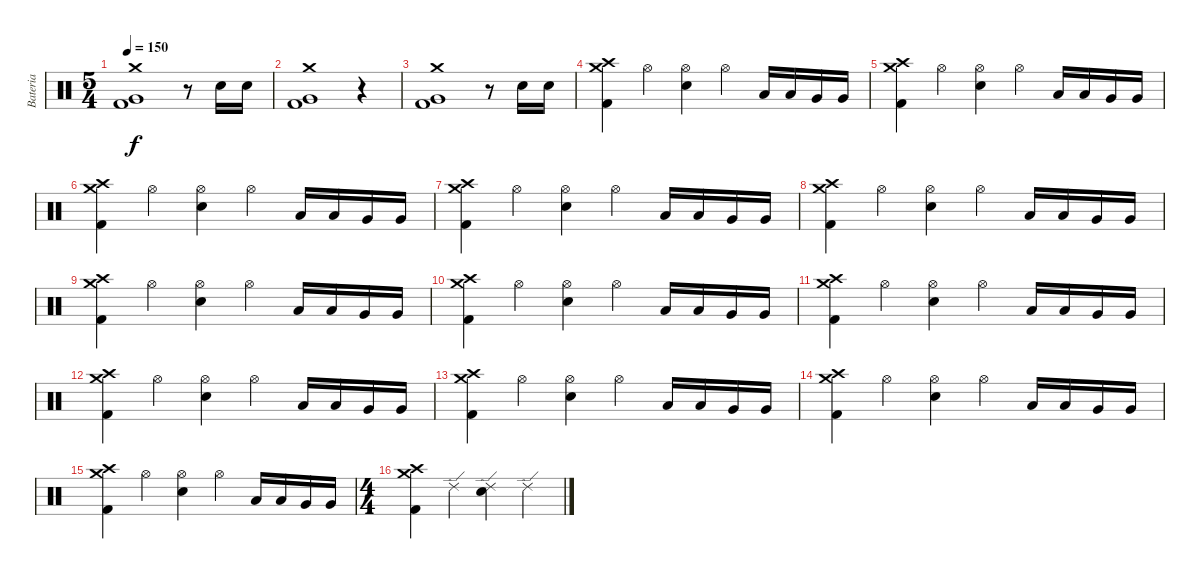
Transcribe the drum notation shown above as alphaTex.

\track ("Bateria" "Bateria") {instrument percussion}
\staff {score}
\articulation defaults
\ts (5 4)
\tempo 150
\clef neutral
\ks c
("Crash medium (hit)" "Very Low Tom (hit)" "Kick (hit) 2").1{dy f} r.8 "Snare (hit) 2".16 "Snare (hit) 2".16 |
("Crash medium (hit)" "Very Low Tom (hit)" "Kick (hit) 2").1 r.4 |
("Crash medium (hit)" "Very Low Tom (hit)" "Kick (hit) 2").1 r.8 "Snare (hit) 2".16 "Snare (hit) 2".16 |
("Crash high (hit)" "Crash medium (hit)" "Kick (hit) 2").4 "Hi-Hat (open)".4 ("Hi-Hat (open)" "Snare (hit) 2").4 "Hi-Hat (open)".4 "Low Tom (hit)".16 "Low Tom (hit)".16 "Very Low Tom (hit)".16 "Very Low Tom (hit)".16 |
("Crash high (hit)" "Crash medium (hit)" "Kick (hit) 2").4 "Hi-Hat (open)".4 ("Hi-Hat (open)" "Snare (hit) 2").4 "Hi-Hat (open)".4 "Low Tom (hit)".16 "Low Tom (hit)".16 "Very Low Tom (hit)".16 "Very Low Tom (hit)".16 |
("Crash high (hit)" "Crash medium (hit)" "Kick (hit) 2").4 "Hi-Hat (open)".4 ("Hi-Hat (open)" "Snare (hit) 2").4 "Hi-Hat (open)".4 "Low Tom (hit)".16 "Low Tom (hit)".16 "Very Low Tom (hit)".16 "Very Low Tom (hit)".16 |
("Crash high (hit)" "Crash medium (hit)" "Kick (hit) 2").4 "Hi-Hat (open)".4 ("Hi-Hat (open)" "Snare (hit) 2").4 "Hi-Hat (open)".4 "Low Tom (hit)".16 "Low Tom (hit)".16 "Very Low Tom (hit)".16 "Very Low Tom (hit)".16 |
("Crash high (hit)" "Crash medium (hit)" "Kick (hit) 2").4 "Hi-Hat (open)".4 ("Hi-Hat (open)" "Snare (hit) 2").4 "Hi-Hat (open)".4 "Low Tom (hit)".16 "Low Tom (hit)".16 "Very Low Tom (hit)".16 "Very Low Tom (hit)".16 |
("Crash high (hit)" "Crash medium (hit)" "Kick (hit) 2").4 "Hi-Hat (open)".4 ("Hi-Hat (open)" "Snare (hit) 2").4 "Hi-Hat (open)".4 "Low Tom (hit)".16 "Low Tom (hit)".16 "Very Low Tom (hit)".16 "Very Low Tom (hit)".16 |
("Crash high (hit)" "Crash medium (hit)" "Kick (hit) 2").4 "Hi-Hat (open)".4 ("Hi-Hat (open)" "Snare (hit) 2").4 "Hi-Hat (open)".4 "Low Tom (hit)".16 "Low Tom (hit)".16 "Very Low Tom (hit)".16 "Very Low Tom (hit)".16 |
("Crash high (hit)" "Crash medium (hit)" "Kick (hit) 2").4 "Hi-Hat (open)".4 ("Hi-Hat (open)" "Snare (hit) 2").4 "Hi-Hat (open)".4 "Low Tom (hit)".16 "Low Tom (hit)".16 "Very Low Tom (hit)".16 "Very Low Tom (hit)".16 |
("Crash high (hit)" "Crash medium (hit)" "Kick (hit) 2").4 "Hi-Hat (open)".4 ("Hi-Hat (open)" "Snare (hit) 2").4 "Hi-Hat (open)".4 "Low Tom (hit)".16 "Low Tom (hit)".16 "Very Low Tom (hit)".16 "Very Low Tom (hit)".16 |
("Crash high (hit)" "Crash medium (hit)" "Kick (hit) 2").4 "Hi-Hat (open)".4 ("Hi-Hat (open)" "Snare (hit) 2").4 "Hi-Hat (open)".4 "Low Tom (hit)".16 "Low Tom (hit)".16 "Very Low Tom (hit)".16 "Very Low Tom (hit)".16 |
("Crash high (hit)" "Crash medium (hit)" "Kick (hit) 2").4 "Hi-Hat (open)".4 ("Hi-Hat (open)" "Snare (hit) 2").4 "Hi-Hat (open)".4 "Low Tom (hit)".16 "Low Tom (hit)".16 "Very Low Tom (hit)".16 "Very Low Tom (hit)".16 |
("Crash high (hit)" "Crash medium (hit)" "Kick (hit) 2").4 "Hi-Hat (open)".4 ("Hi-Hat (open)" "Snare (hit) 2").4 "Hi-Hat (open)".4 "Low Tom (hit)".16 "Low Tom (hit)".16 "Very Low Tom (hit)".16 "Very Low Tom (hit)".16 |
\ts (4 4)
("Crash high (hit)" "Crash medium (hit)" "Kick (hit) 2").4 "Ride (edge) 2".4 ("Ride (edge) 2" "Snare (hit) 2").4 "Ride (edge) 2".4
